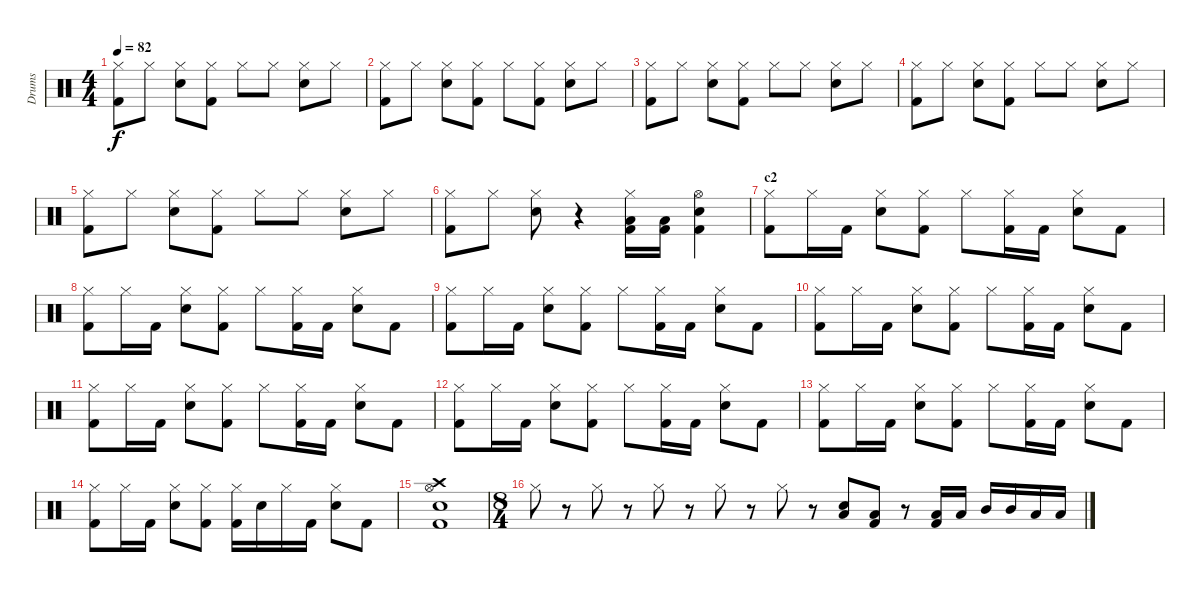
\track ("Drums" "Drums") {instrument percussion}
\staff {score}
\articulation defaults
\ts (4 4)
\tempo 82
\clef neutral
\ks c
("Hi-Hat (closed)" "Kick (hit) 2").8{dy f} "Hi-Hat (closed)".8 ("Hi-Hat (closed)" "Snare (hit) 2").8 ("Hi-Hat (closed)" "Kick (hit) 2").8 "Hi-Hat (closed)".8 "Hi-Hat (closed)".8 ("Hi-Hat (closed)" "Snare (hit) 2").8 "Hi-Hat (closed)".8 |
("Hi-Hat (closed)" "Kick (hit) 2").8 "Hi-Hat (closed)".8 ("Hi-Hat (closed)" "Snare (hit) 2").8 ("Hi-Hat (closed)" "Kick (hit) 2").8 "Hi-Hat (closed)".8 ("Hi-Hat (closed)" "Kick (hit) 2").8 ("Hi-Hat (closed)" "Snare (hit) 2").8 "Hi-Hat (closed)".8 |
("Hi-Hat (closed)" "Kick (hit) 2").8 "Hi-Hat (closed)".8 ("Hi-Hat (closed)" "Snare (hit) 2").8 ("Hi-Hat (closed)" "Kick (hit) 2").8 "Hi-Hat (closed)".8 "Hi-Hat (closed)".8 ("Hi-Hat (closed)" "Snare (hit) 2").8 "Hi-Hat (closed)".8 |
("Hi-Hat (closed)" "Kick (hit) 2").8 "Hi-Hat (closed)".8 ("Hi-Hat (closed)" "Snare (hit) 2").8 ("Hi-Hat (closed)" "Kick (hit) 2").8 "Hi-Hat (closed)".8 "Hi-Hat (closed)".8 ("Hi-Hat (closed)" "Snare (hit) 2").8 "Hi-Hat (closed)".8 |
("Hi-Hat (closed)" "Kick (hit) 2").8 "Hi-Hat (closed)".8 ("Hi-Hat (closed)" "Snare (hit) 2").8 ("Hi-Hat (closed)" "Kick (hit) 2").8 "Hi-Hat (closed)".8 "Hi-Hat (closed)".8 ("Hi-Hat (closed)" "Snare (hit) 2").8 "Hi-Hat (closed)".8 |
("Hi-Hat (closed)" "Kick (hit) 2").8 "Hi-Hat (closed)".8 ("Hi-Hat (closed)" "Snare (hit) 2").8 r.4 ("Hi-Hat (closed)" "Low Tom (hit)" "Kick (hit) 2").16 ("Low Tom (hit)" "Kick (hit) 2").16 ("Hi-Hat (open)" "Snare (hit) 2" "Kick (hit) 2").4 |
\section ("" "c2")
("Hi-Hat (closed)" "Kick (hit) 2").8 "Hi-Hat (closed)".16 "Kick (hit) 2".16 ("Hi-Hat (closed)" "Snare (hit) 2").8 ("Hi-Hat (closed)" "Kick (hit) 2").8 "Hi-Hat (closed)".8 ("Hi-Hat (closed)" "Kick (hit) 2").16 "Kick (hit) 2".16 ("Hi-Hat (closed)" "Snare (hit) 2").8 "Kick (hit) 2".8 |
("Hi-Hat (closed)" "Kick (hit) 2").8 "Hi-Hat (closed)".16 "Kick (hit) 2".16 ("Hi-Hat (closed)" "Snare (hit) 2").8 ("Hi-Hat (closed)" "Kick (hit) 2").8 "Hi-Hat (closed)".8 ("Hi-Hat (closed)" "Kick (hit) 2").16 "Kick (hit) 2".16 ("Hi-Hat (closed)" "Snare (hit) 2").8 "Kick (hit) 2".8 |
("Hi-Hat (closed)" "Kick (hit) 2").8 "Hi-Hat (closed)".16 "Kick (hit) 2".16 ("Hi-Hat (closed)" "Snare (hit) 2").8 ("Hi-Hat (closed)" "Kick (hit) 2").8 "Hi-Hat (closed)".8 ("Hi-Hat (closed)" "Kick (hit) 2").16 "Kick (hit) 2".16 ("Hi-Hat (closed)" "Snare (hit) 2").8 "Kick (hit) 2".8 |
("Hi-Hat (closed)" "Kick (hit) 2").8 "Hi-Hat (closed)".16 "Kick (hit) 2".16 ("Hi-Hat (closed)" "Snare (hit) 2").8 ("Hi-Hat (closed)" "Kick (hit) 2").8 "Hi-Hat (closed)".8 ("Hi-Hat (closed)" "Kick (hit) 2").16 "Kick (hit) 2".16 ("Hi-Hat (closed)" "Snare (hit) 2").8 "Kick (hit) 2".8 |
("Hi-Hat (closed)" "Kick (hit) 2").8 "Hi-Hat (closed)".16 "Kick (hit) 2".16 ("Hi-Hat (closed)" "Snare (hit) 2").8 ("Hi-Hat (closed)" "Kick (hit) 2").8 "Hi-Hat (closed)".8 ("Hi-Hat (closed)" "Kick (hit) 2").16 "Kick (hit) 2".16 ("Hi-Hat (closed)" "Snare (hit) 2").8 "Kick (hit) 2".8 |
("Hi-Hat (closed)" "Kick (hit) 2").8 "Hi-Hat (closed)".16 "Kick (hit) 2".16 ("Hi-Hat (closed)" "Snare (hit) 2").8 ("Hi-Hat (closed)" "Kick (hit) 2").8 "Hi-Hat (closed)".8 ("Hi-Hat (closed)" "Kick (hit) 2").16 "Kick (hit) 2".16 ("Hi-Hat (closed)" "Snare (hit) 2").8 "Kick (hit) 2".8 |
("Hi-Hat (closed)" "Kick (hit) 2").8 "Hi-Hat (closed)".16 "Kick (hit) 2".16 ("Hi-Hat (closed)" "Snare (hit) 2").8 ("Hi-Hat (closed)" "Kick (hit) 2").8 "Hi-Hat (closed)".8 ("Hi-Hat (closed)" "Kick (hit) 2").16 "Kick (hit) 2".16 ("Hi-Hat (closed)" "Snare (hit) 2").8 "Kick (hit) 2".8 |
("Hi-Hat (closed)" "Kick (hit) 2").8 "Hi-Hat (closed)".16 "Kick (hit) 2".16 ("Hi-Hat (closed)" "Snare (hit) 2").8 ("Hi-Hat (closed)" "Kick (hit) 2").8 ("Hi-Hat (closed)" "Kick (hit) 2").16 "Snare (hit) 2".16 "Hi-Hat (closed)".16 "Kick (hit) 2".16 ("Hi-Hat (closed)" "Snare (hit) 2").8 "Kick (hit) 2".8 |
("Crash high (hit)" "Snare (hit) 2" "Hi-Hat (open)" "Kick (hit) 2").1 |
\ts (8 4)
"Hi-Hat (closed)".8 r.8 "Hi-Hat (closed)".8 r.8 "Hi-Hat (closed)".8 r.8 "Hi-Hat (closed)".8 r.8 "Hi-Hat (closed)".8 r.8 ("Snare (hit) 2" "Low Tom (hit)").8 ("Low Tom (hit)" "Kick (hit) 2").8 r.8 ("Low Tom (hit)" "Kick (hit) 2").16 "Low Tom (hit)".16 "Mid Tom (hit)".16 "Mid Tom (hit)".16 "Low Tom (hit)".16 "Low Tom (hit)".16
